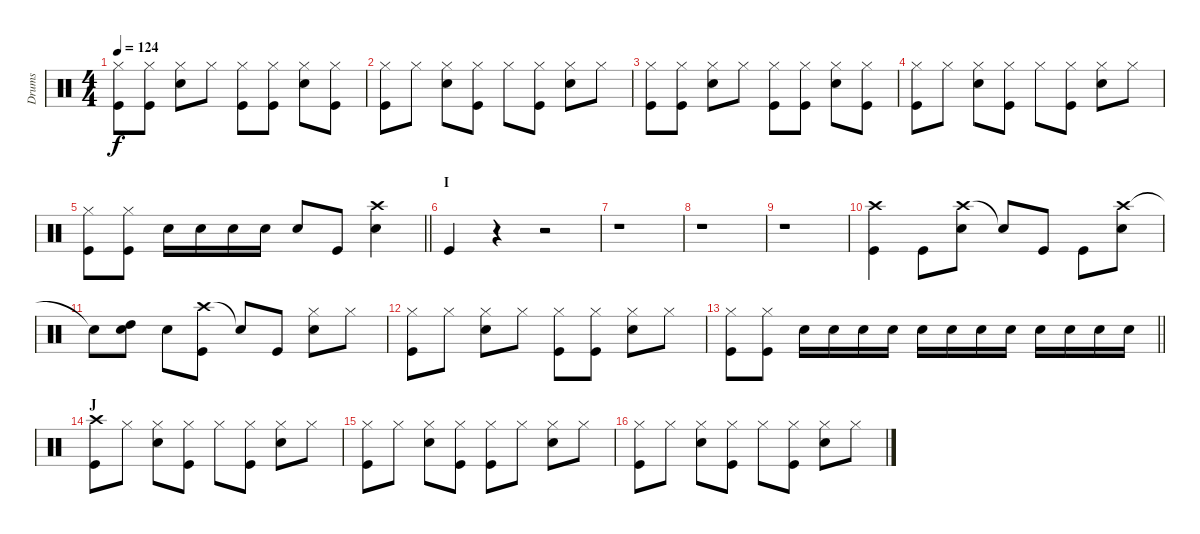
\track ("Drums" "Drums") {instrument percussion}
\staff {score}
\articulation defaults
\ts (4 4)
\tempo 124
\clef neutral
\ks c
("Hi-Hat (closed)" "Kick (hit)").8{dy f} ("Hi-Hat (closed)" "Kick (hit)").8 ("Hi-Hat (closed)" "Electric Snare (hit)").8 "Hi-Hat (closed)".8 ("Hi-Hat (closed)" "Kick (hit)").8 ("Hi-Hat (closed)" "Kick (hit)").8 ("Hi-Hat (closed)" "Electric Snare (hit)").8 ("Hi-Hat (closed)" "Kick (hit)").8 |
("Hi-Hat (closed)" "Kick (hit)").8 "Hi-Hat (closed)".8 ("Hi-Hat (closed)" "Electric Snare (hit)").8 ("Hi-Hat (closed)" "Kick (hit)").8 "Hi-Hat (closed)".8 ("Hi-Hat (closed)" "Kick (hit)").8 ("Hi-Hat (closed)" "Electric Snare (hit)").8 "Hi-Hat (closed)".8 |
("Hi-Hat (closed)" "Kick (hit)").8 ("Hi-Hat (closed)" "Kick (hit)").8 ("Hi-Hat (closed)" "Electric Snare (hit)").8 "Hi-Hat (closed)".8 ("Hi-Hat (closed)" "Kick (hit)").8 ("Hi-Hat (closed)" "Kick (hit)").8 ("Hi-Hat (closed)" "Electric Snare (hit)").8 ("Hi-Hat (closed)" "Kick (hit)").8 |
("Hi-Hat (closed)" "Kick (hit)").8 "Hi-Hat (closed)".8 ("Hi-Hat (closed)" "Electric Snare (hit)").8 ("Hi-Hat (closed)" "Kick (hit)").8 "Hi-Hat (closed)".8 ("Hi-Hat (closed)" "Kick (hit)").8 ("Hi-Hat (closed)" "Electric Snare (hit)").8 "Hi-Hat (closed)".8 |
\barLineRight lightlight
("Hi-Hat (closed)" "Kick (hit)").8 ("Hi-Hat (closed)" "Kick (hit)").8 "Electric Snare (hit)".16 "Electric Snare (hit)".16 "Electric Snare (hit)".16 "Electric Snare (hit)".16 "Electric Snare (hit)".8 "Kick (hit)".8 ("Crash high (hit)" "Electric Snare (hit)").4 |
\section ("" "I")
"Kick (hit)".4 r.4 r.2 |
r.1 |
r.1 |
r.1 |
("Crash high (hit)" "Kick (hit)").4 "Kick (hit)".8 ("Crash high (hit)" "Electric Snare (hit)").8 "Snare (hit)"{t}.8 "Kick (hit)".8 "Kick (hit)".8 ("Crash high (hit)" "Electric Snare (hit)").8 |
"Snare (hit)"{t}.8 ("High Tom (hit)" "Electric Snare (hit)").8 "Electric Snare (hit)".8 ("Crash high (hit)" "Kick (hit)").8 "Snare (hit)"{t}.8 "Kick (hit)".8 ("Hi-Hat (closed)" "Electric Snare (hit)").8 "Hi-Hat (closed)".8 |
("Hi-Hat (closed)" "Kick (hit)").8 "Hi-Hat (closed)".8 ("Hi-Hat (closed)" "Electric Snare (hit)").8 "Hi-Hat (closed)".8 ("Hi-Hat (closed)" "Kick (hit)").8 ("Hi-Hat (closed)" "Kick (hit)").8 ("Hi-Hat (closed)" "Electric Snare (hit)").8 "Hi-Hat (closed)".8 |
\barLineRight lightlight
("Hi-Hat (closed)" "Kick (hit)").8 ("Hi-Hat (closed)" "Kick (hit)").8 "Electric Snare (hit)".16 "Electric Snare (hit)".16 "Electric Snare (hit)".16 "Electric Snare (hit)".16 "Electric Snare (hit)".16 "Electric Snare (hit)".16 "Electric Snare (hit)".16 "Electric Snare (hit)".16 "Electric Snare (hit)".16 "Electric Snare (hit)".16 "Electric Snare (hit)".16 "Electric Snare (hit)".16 |
\section ("" "J")
("Crash high (hit)" "Kick (hit)").8 "Hi-Hat (closed)".8 ("Hi-Hat (closed)" "Electric Snare (hit)").8 ("Hi-Hat (closed)" "Kick (hit)").8 "Hi-Hat (closed)".8 ("Hi-Hat (closed)" "Kick (hit)").8 ("Hi-Hat (closed)" "Electric Snare (hit)").8 "Hi-Hat (closed)".8 |
("Hi-Hat (closed)" "Kick (hit)").8 "Hi-Hat (closed)".8 ("Hi-Hat (closed)" "Electric Snare (hit)").8 ("Hi-Hat (closed)" "Kick (hit)").8 ("Hi-Hat (closed)" "Kick (hit)").8 "Hi-Hat (closed)".8 ("Hi-Hat (closed)" "Electric Snare (hit)").8 "Hi-Hat (closed)".8 |
("Hi-Hat (closed)" "Kick (hit)").8 "Hi-Hat (closed)".8 ("Hi-Hat (closed)" "Electric Snare (hit)").8 ("Hi-Hat (closed)" "Kick (hit)").8 "Hi-Hat (closed)".8 ("Hi-Hat (closed)" "Kick (hit)").8 ("Hi-Hat (closed)" "Electric Snare (hit)").8 "Hi-Hat (closed)".8
